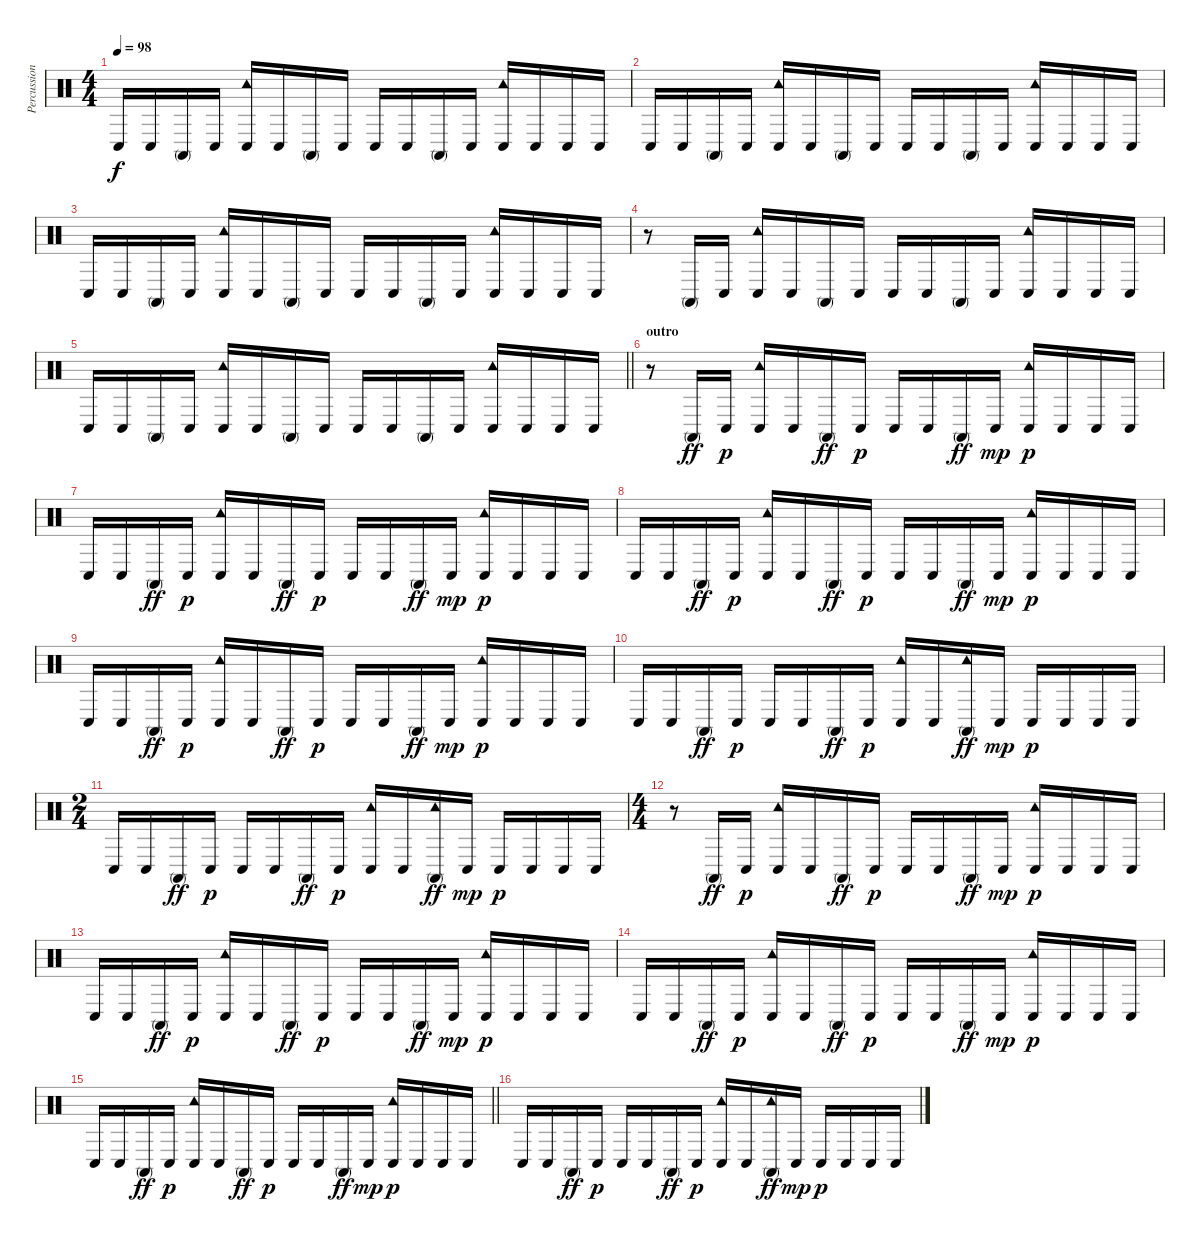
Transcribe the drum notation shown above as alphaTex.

\track ("Percussions" "Percussion") {instrument percussion}
\staff {score}
\articulation defaults
\ts (4 4)
\tempo 98
\clef neutral
\ks c "Conga low (hit)".16{dy f} "Conga low (hit)".16 "Conga high (mute)".16 "Conga low (hit)".16
("Tambourine (hit)" "Conga low (hit)").16 "Conga low (hit)".16 "Conga high (mute)".16 "Conga low (hit)".16 "Conga low (hit)".16 "Conga low (hit)".16 "Conga high (mute)".16 "Conga low (hit)".16 ("Tambourine (hit)" "Conga low (hit)").16 "Conga low (hit)".16 "Conga low (hit)".16 "Conga low (hit)".16 |
"Conga low (hit)".16 "Conga low (hit)".16 "Conga high (mute)".16 "Conga low (hit)".16 ("Tambourine (hit)" "Conga low (hit)").16 "Conga low (hit)".16 "Conga high (mute)".16 "Conga low (hit)".16 "Conga low (hit)".16 "Conga low (hit)".16 "Conga high (mute)".16 "Conga low (hit)".16 ("Tambourine (hit)" "Conga low (hit)").16 "Conga low (hit)".16 "Conga low (hit)".16 "Conga low (hit)".16 |
"Conga low (hit)".16 "Conga low (hit)".16 "Conga high (mute)".16 "Conga low (hit)".16 ("Tambourine (hit)" "Conga low (hit)").16 "Conga low (hit)".16 "Conga high (mute)".16 "Conga low (hit)".16 "Conga low (hit)".16 "Conga low (hit)".16 "Conga high (mute)".16 "Conga low (hit)".16 ("Tambourine (hit)" "Conga low (hit)").16 "Conga low (hit)".16 "Conga low (hit)".16 "Conga low (hit)".16 |
r.8 "Conga high (mute)".16 "Conga low (hit)".16 ("Tambourine (hit)" "Conga low (hit)").16 "Conga low (hit)".16 "Conga high (mute)".16 "Conga low (hit)".16 "Conga low (hit)".16 "Conga low (hit)".16 "Conga high (mute)".16 "Conga low (hit)".16 ("Tambourine (hit)" "Conga low (hit)").16 "Conga low (hit)".16 "Conga low (hit)".16 "Conga low (hit)".16 |
\barLineRight lightlight "Conga low (hit)".16 "Conga low (hit)".16 "Conga high (mute)".16 "Conga low (hit)".16
("Tambourine (hit)" "Conga low (hit)").16 "Conga low (hit)".16 "Conga high (mute)".16 "Conga low (hit)".16 "Conga low (hit)".16 "Conga low (hit)".16 "Conga high (mute)".16 "Conga low (hit)".16 ("Tambourine (hit)" "Conga low (hit)").16 "Conga low (hit)".16 "Conga low (hit)".16 "Conga low (hit)".16 |
\section ("" "outro")
r.8 "Conga high (mute)".16{dy ff} "Conga low (hit)".16{dy p} ("Tambourine (hit)" "Conga low (hit)").16 "Conga low (hit)".16 "Conga high (mute)".16{dy ff} "Conga low (hit)".16{dy p} "Conga low (hit)".16 "Conga low (hit)".16 "Conga high (mute)".16{dy ff} "Conga low (hit)".16{dy mp} ("Tambourine (hit)" "Conga low (hit)").16{dy p} "Conga low (hit)".16 "Conga low (hit)".16 "Conga low (hit)".16 |
"Conga low (hit)".16 "Conga low (hit)".16 "Conga high (mute)".16{dy ff} "Conga low (hit)".16{dy p} ("Tambourine (hit)" "Conga low (hit)").16 "Conga low (hit)".16 "Conga high (mute)".16{dy ff} "Conga low (hit)".16{dy p} "Conga low (hit)".16 "Conga low (hit)".16 "Conga high (mute)".16{dy ff} "Conga low (hit)".16{dy mp} ("Tambourine (hit)" "Conga low (hit)").16{dy p} "Conga low (hit)".16 "Conga low (hit)".16 "Conga low (hit)".16 |
"Conga low (hit)".16 "Conga low (hit)".16 "Conga high (mute)".16{dy ff} "Conga low (hit)".16{dy p} ("Tambourine (hit)" "Conga low (hit)").16 "Conga low (hit)".16 "Conga high (mute)".16{dy ff} "Conga low (hit)".16{dy p} "Conga low (hit)".16 "Conga low (hit)".16 "Conga high (mute)".16{dy ff} "Conga low (hit)".16{dy mp} ("Tambourine (hit)" "Conga low (hit)").16{dy p} "Conga low (hit)".16 "Conga low (hit)".16 "Conga low (hit)".16 |
"Conga low (hit)".16 "Conga low (hit)".16 "Conga high (mute)".16{dy ff} "Conga low (hit)".16{dy p} ("Tambourine (hit)" "Conga low (hit)").16 "Conga low (hit)".16 "Conga high (mute)".16{dy ff} "Conga low (hit)".16{dy p} "Conga low (hit)".16 "Conga low (hit)".16 "Conga high (mute)".16{dy ff} "Conga low (hit)".16{dy mp} ("Tambourine (hit)" "Conga low (hit)").16{dy p} "Conga low (hit)".16 "Conga low (hit)".16 "Conga low (hit)".16 |
"Conga low (hit)".16 "Conga low (hit)".16 "Conga high (mute)".16{dy ff} "Conga low (hit)".16{dy p} "Conga low (hit)".16 "Conga low (hit)".16 "Conga high (mute)".16{dy ff} "Conga low (hit)".16{dy p} ("Tambourine (hit)" "Conga low (hit)").16 "Conga low (hit)".16 ("Tambourine (hit)" "Conga high (mute)").16{dy ff} "Conga low (hit)".16{dy mp} "Conga low (hit)".16{dy p} "Conga low (hit)".16 "Conga low (hit)".16 "Conga low (hit)".16 |
\ts (2 4)
"Conga low (hit)".16 "Conga low (hit)".16 "Conga high (mute)".16{dy ff} "Conga low (hit)".16{dy p} "Conga low (hit)".16 "Conga low (hit)".16 "Conga high (mute)".16{dy ff} "Conga low (hit)".16{dy p} ("Tambourine (hit)" "Conga low (hit)").16 "Conga low (hit)".16 ("Tambourine (hit)" "Conga high (mute)").16{dy ff} "Conga low (hit)".16{dy mp} "Conga low (hit)".16{dy p} "Conga low (hit)".16 "Conga low (hit)".16 "Conga low (hit)".16 |
\ts (4 4)
r.8 "Conga high (mute)".16{dy ff} "Conga low (hit)".16{dy p} ("Tambourine (hit)" "Conga low (hit)").16 "Conga low (hit)".16 "Conga high (mute)".16{dy ff} "Conga low (hit)".16{dy p} "Conga low (hit)".16 "Conga low (hit)".16 "Conga high (mute)".16{dy ff} "Conga low (hit)".16{dy mp} ("Tambourine (hit)" "Conga low (hit)").16{dy p} "Conga low (hit)".16 "Conga low (hit)".16 "Conga low (hit)".16 |
"Conga low (hit)".16 "Conga low (hit)".16 "Conga high (mute)".16{dy ff} "Conga low (hit)".16{dy p} ("Tambourine (hit)" "Conga low (hit)").16 "Conga low (hit)".16 "Conga high (mute)".16{dy ff} "Conga low (hit)".16{dy p} "Conga low (hit)".16 "Conga low (hit)".16 "Conga high (mute)".16{dy ff} "Conga low (hit)".16{dy mp} ("Tambourine (hit)" "Conga low (hit)").16{dy p} "Conga low (hit)".16 "Conga low (hit)".16 "Conga low (hit)".16 |
"Conga low (hit)".16 "Conga low (hit)".16 "Conga high (mute)".16{dy ff} "Conga low (hit)".16{dy p} ("Tambourine (hit)" "Conga low (hit)").16 "Conga low (hit)".16 "Conga high (mute)".16{dy ff} "Conga low (hit)".16{dy p} "Conga low (hit)".16 "Conga low (hit)".16 "Conga high (mute)".16{dy ff} "Conga low (hit)".16{dy mp} ("Tambourine (hit)" "Conga low (hit)").16{dy p} "Conga low (hit)".16 "Conga low (hit)".16 "Conga low (hit)".16 |
\barLineRight lightlight "Conga low (hit)".16 "Conga low (hit)".16 "Conga high (mute)".16{dy ff} "Conga low (hit)".16{dy p}
("Tambourine (hit)" "Conga low (hit)").16 "Conga low (hit)".16 "Conga high (mute)".16{dy ff} "Conga low (hit)".16{dy p} "Conga low (hit)".16 "Conga low (hit)".16 "Conga high (mute)".16{dy ff} "Conga low (hit)".16{dy mp} ("Tambourine (hit)" "Conga low (hit)").16{dy p} "Conga low (hit)".16 "Conga low (hit)".16 "Conga low (hit)".16 |
"Conga low (hit)".16 "Conga low (hit)".16 "Conga high (mute)".16{dy ff} "Conga low (hit)".16{dy p} "Conga low (hit)".16 "Conga low (hit)".16 "Conga high (mute)".16{dy ff} "Conga low (hit)".16{dy p} ("Tambourine (hit)" "Conga low (hit)").16 "Conga low (hit)".16 ("Tambourine (hit)" "Conga high (mute)").16{dy ff} "Conga low (hit)".16{dy mp} "Conga low (hit)".16{dy p} "Conga low (hit)".16 "Conga low (hit)".16 "Conga low (hit)".16
